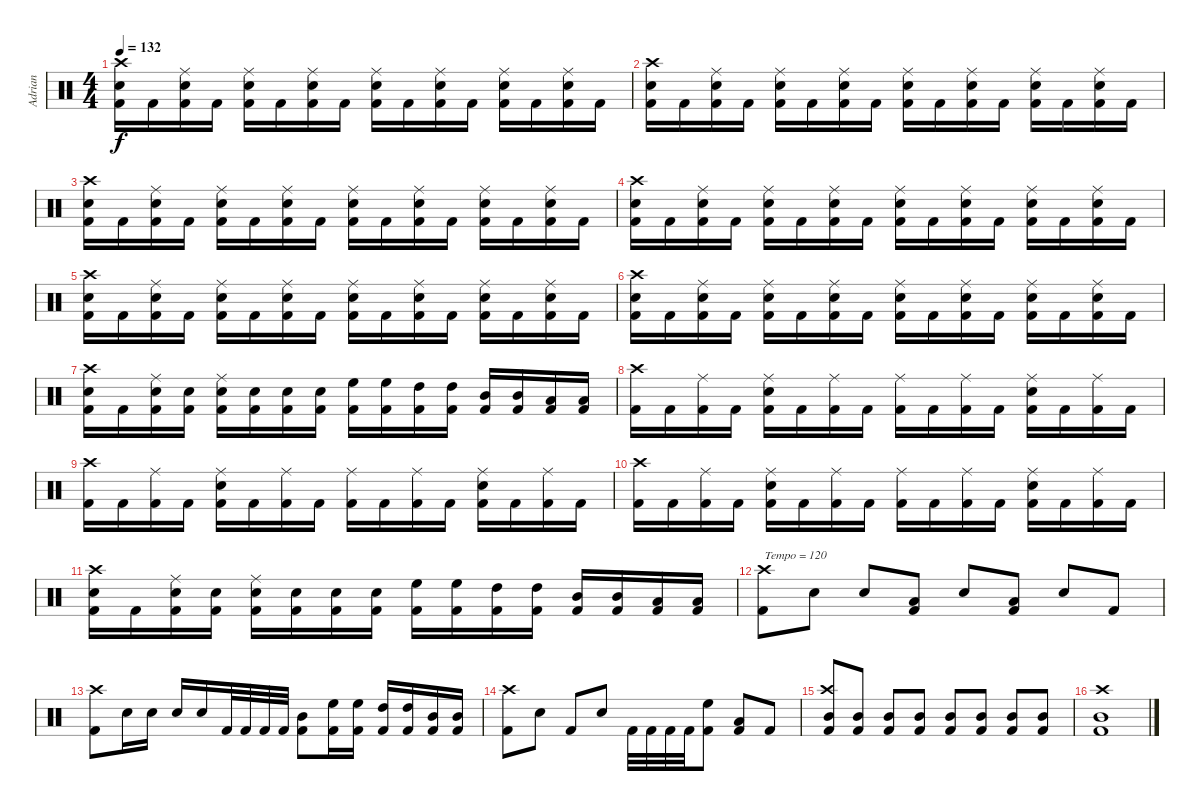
\track ("Adrian" "Adrian") {instrument percussion}
\staff {score}
\articulation defaults
\ts (4 4)
\tempo 132
\clef neutral
\ks c
("Kick (hit) 2" "Snare (hit) 2" "Crash high (hit)").16{dy f} "Kick (hit) 2".16 ("Kick (hit) 2" "Snare (hit) 2" "Ride (middle)").16 "Kick (hit) 2".16 ("Kick (hit) 2" "Snare (hit) 2" "Ride (middle)").16 "Kick (hit) 2".16 ("Kick (hit) 2" "Snare (hit) 2" "Ride (middle)").16 "Kick (hit) 2".16 ("Kick (hit) 2" "Snare (hit) 2" "Ride (middle)").16 "Kick (hit) 2".16 ("Kick (hit) 2" "Snare (hit) 2" "Ride (middle)").16 "Kick (hit) 2".16 ("Kick (hit) 2" "Snare (hit) 2" "Ride (middle)").16 "Kick (hit) 2".16 ("Kick (hit) 2" "Snare (hit) 2" "Ride (middle)").16 "Kick (hit) 2".16 |
("Kick (hit) 2" "Snare (hit) 2" "Crash high (hit)").16 "Kick (hit) 2".16 ("Kick (hit) 2" "Snare (hit) 2" "Ride (middle)").16 "Kick (hit) 2".16 ("Kick (hit) 2" "Snare (hit) 2" "Ride (middle)").16 "Kick (hit) 2".16 ("Kick (hit) 2" "Snare (hit) 2" "Ride (middle)").16 "Kick (hit) 2".16 ("Kick (hit) 2" "Snare (hit) 2" "Ride (middle)").16 "Kick (hit) 2".16 ("Kick (hit) 2" "Snare (hit) 2" "Ride (middle)").16 "Kick (hit) 2".16 ("Kick (hit) 2" "Snare (hit) 2" "Ride (middle)").16 "Kick (hit) 2".16 ("Kick (hit) 2" "Snare (hit) 2" "Ride (middle)").16 "Kick (hit) 2".16 |
("Kick (hit) 2" "Snare (hit) 2" "Crash high (hit)").16 "Kick (hit) 2".16 ("Kick (hit) 2" "Snare (hit) 2" "Ride (middle)").16 "Kick (hit) 2".16 ("Kick (hit) 2" "Snare (hit) 2" "Ride (middle)").16 "Kick (hit) 2".16 ("Kick (hit) 2" "Snare (hit) 2" "Ride (middle)").16 "Kick (hit) 2".16 ("Kick (hit) 2" "Snare (hit) 2" "Ride (middle)").16 "Kick (hit) 2".16 ("Kick (hit) 2" "Snare (hit) 2" "Ride (middle)").16 "Kick (hit) 2".16 ("Kick (hit) 2" "Snare (hit) 2" "Ride (middle)").16 "Kick (hit) 2".16 ("Kick (hit) 2" "Snare (hit) 2" "Ride (middle)").16 "Kick (hit) 2".16 |
("Kick (hit) 2" "Snare (hit) 2" "Crash high (hit)").16 "Kick (hit) 2".16 ("Kick (hit) 2" "Snare (hit) 2" "Ride (middle)").16 "Kick (hit) 2".16 ("Kick (hit) 2" "Snare (hit) 2" "Ride (middle)").16 "Kick (hit) 2".16 ("Kick (hit) 2" "Snare (hit) 2" "Ride (middle)").16 "Kick (hit) 2".16 ("Kick (hit) 2" "Snare (hit) 2" "Ride (middle)").16 "Kick (hit) 2".16 ("Kick (hit) 2" "Snare (hit) 2" "Ride (middle)").16 "Kick (hit) 2".16 ("Kick (hit) 2" "Snare (hit) 2" "Ride (middle)").16 "Kick (hit) 2".16 ("Kick (hit) 2" "Snare (hit) 2" "Ride (middle)").16 "Kick (hit) 2".16 |
("Kick (hit) 2" "Snare (hit) 2" "Crash high (hit)").16 "Kick (hit) 2".16 ("Kick (hit) 2" "Snare (hit) 2" "Ride (middle)").16 "Kick (hit) 2".16 ("Kick (hit) 2" "Snare (hit) 2" "Ride (middle)").16 "Kick (hit) 2".16 ("Kick (hit) 2" "Snare (hit) 2" "Ride (middle)").16 "Kick (hit) 2".16 ("Kick (hit) 2" "Snare (hit) 2" "Ride (middle)").16 "Kick (hit) 2".16 ("Kick (hit) 2" "Snare (hit) 2" "Ride (middle)").16 "Kick (hit) 2".16 ("Kick (hit) 2" "Snare (hit) 2" "Ride (middle)").16 "Kick (hit) 2".16 ("Kick (hit) 2" "Snare (hit) 2" "Ride (middle)").16 "Kick (hit) 2".16 |
("Kick (hit) 2" "Snare (hit) 2" "Crash high (hit)").16 "Kick (hit) 2".16 ("Kick (hit) 2" "Snare (hit) 2" "Ride (middle)").16 "Kick (hit) 2".16 ("Kick (hit) 2" "Snare (hit) 2" "Ride (middle)").16 "Kick (hit) 2".16 ("Kick (hit) 2" "Snare (hit) 2" "Ride (middle)").16 "Kick (hit) 2".16 ("Kick (hit) 2" "Snare (hit) 2" "Ride (middle)").16 "Kick (hit) 2".16 ("Kick (hit) 2" "Snare (hit) 2" "Ride (middle)").16 "Kick (hit) 2".16 ("Kick (hit) 2" "Snare (hit) 2" "Ride (middle)").16 "Kick (hit) 2".16 ("Kick (hit) 2" "Snare (hit) 2" "Ride (middle)").16 "Kick (hit) 2".16 |
("Kick (hit) 2" "Snare (hit) 2" "Crash high (hit)").16 "Kick (hit) 2".16 ("Kick (hit) 2" "Snare (hit) 2" "Ride (middle)").16 ("Kick (hit) 2" "Snare (hit) 2").16 ("Kick (hit) 2" "Snare (hit) 2" "Ride (middle)").16 ("Kick (hit) 2" "Snare (hit) 2").16 ("Kick (hit) 2" "Snare (hit) 2").16 ("Kick (hit) 2" "Snare (hit) 2").16 ("Kick (hit) 2" "High Floor Tom (hit)").16 ("Kick (hit) 2" "High Floor Tom (hit)").16 ("Kick (hit) 2" "High Tom (hit)").16 ("Kick (hit) 2" "High Tom (hit)").16 ("Kick (hit) 2" "Mid Tom (hit)").16 ("Kick (hit) 2" "Mid Tom (hit)").16 ("Kick (hit) 2" "Low Tom (hit)").16 ("Kick (hit) 2" "Low Tom (hit)").16 |
("Kick (hit) 2" "Crash high (hit)").16 "Kick (hit) 2".16 ("Kick (hit) 2" "Ride (middle)").16 "Kick (hit) 2".16 ("Kick (hit) 2" "Snare (hit) 2" "Ride (middle)").16 "Kick (hit) 2".16 ("Kick (hit) 2" "Ride (middle)").16 "Kick (hit) 2".16 ("Kick (hit) 2" "Ride (middle)").16 "Kick (hit) 2".16 ("Kick (hit) 2" "Ride (middle)").16 "Kick (hit) 2".16 ("Kick (hit) 2" "Snare (hit) 2" "Ride (middle)").16 "Kick (hit) 2".16 ("Kick (hit) 2" "Ride (middle)").16 "Kick (hit) 2".16 |
("Kick (hit) 2" "Crash high (hit)").16 "Kick (hit) 2".16 ("Kick (hit) 2" "Ride (middle)").16 "Kick (hit) 2".16 ("Kick (hit) 2" "Snare (hit) 2" "Ride (middle)").16 "Kick (hit) 2".16 ("Kick (hit) 2" "Ride (middle)").16 "Kick (hit) 2".16 ("Kick (hit) 2" "Ride (middle)").16 "Kick (hit) 2".16 ("Kick (hit) 2" "Ride (middle)").16 "Kick (hit) 2".16 ("Kick (hit) 2" "Snare (hit) 2" "Ride (middle)").16 "Kick (hit) 2".16 ("Kick (hit) 2" "Ride (middle)").16 "Kick (hit) 2".16 |
("Kick (hit) 2" "Crash high (hit)").16 "Kick (hit) 2".16 ("Kick (hit) 2" "Ride (middle)").16 "Kick (hit) 2".16 ("Kick (hit) 2" "Snare (hit) 2" "Ride (middle)").16 "Kick (hit) 2".16 ("Kick (hit) 2" "Ride (middle)").16 "Kick (hit) 2".16 ("Kick (hit) 2" "Ride (middle)").16 "Kick (hit) 2".16 ("Kick (hit) 2" "Ride (middle)").16 "Kick (hit) 2".16 ("Kick (hit) 2" "Snare (hit) 2" "Ride (middle)").16 "Kick (hit) 2".16 ("Kick (hit) 2" "Ride (middle)").16 "Kick (hit) 2".16 |
("Kick (hit) 2" "Snare (hit) 2" "Crash high (hit)").16 "Kick (hit) 2".16 ("Kick (hit) 2" "Snare (hit) 2" "Ride (middle)").16 ("Kick (hit) 2" "Snare (hit) 2").16 ("Kick (hit) 2" "Snare (hit) 2" "Ride (middle)").16 ("Kick (hit) 2" "Snare (hit) 2").16 ("Kick (hit) 2" "Snare (hit) 2").16 ("Kick (hit) 2" "Snare (hit) 2").16 ("Kick (hit) 2" "High Floor Tom (hit)").16 ("Kick (hit) 2" "High Floor Tom (hit)").16 ("Kick (hit) 2" "High Tom (hit)").16 ("Kick (hit) 2" "High Tom (hit)").16 ("Kick (hit) 2" "Mid Tom (hit)").16 ("Kick (hit) 2" "Mid Tom (hit)").16 ("Kick (hit) 2" "Low Tom (hit)").16 ("Kick (hit) 2" "Low Tom (hit)").16 |
("Kick (hit) 2" "Crash high (hit)").8{txt "Tempo = 120"} "Snare (hit) 2".8 "Snare (hit) 2".8 ("Kick (hit) 2" "Low Tom (hit)").8 "Snare (hit) 2".8 ("Kick (hit) 2" "Low Tom (hit)").8 "Snare (hit) 2".8 "Kick (hit) 2".8 |
("Kick (hit) 2" "Crash high (hit)").8 "Snare (hit) 2".16 "Snare (hit) 2".16 "Snare (hit) 2".16 "Snare (hit) 2".16 "Kick (hit) 2".32 "Kick (hit) 2".32 "Kick (hit) 2".32 "Kick (hit) 2".32 ("Kick (hit) 2" "Mid Tom (hit)").8 ("Kick (hit) 2" "High Floor Tom (hit)").16 ("Kick (hit) 2" "High Floor Tom (hit)").16 ("Kick (hit) 2" "High Tom (hit)").16 ("Kick (hit) 2" "High Tom (hit)").16 ("Kick (hit) 2" "Mid Tom (hit)").16 ("Kick (hit) 2" "Mid Tom (hit)").16 |
("Kick (hit) 2" "Crash high (hit)").8 "Snare (hit) 2".8 "Kick (hit) 2".8 "Snare (hit) 2".8 "Kick (hit) 2".32 "Kick (hit) 2".32 "Kick (hit) 2".32 "Kick (hit) 2".32 ("Kick (hit) 2" "High Floor Tom (hit)").8 ("Kick (hit) 2" "Low Tom (hit)").8 "Kick (hit) 2".8 |
("Kick (hit) 2" "Mid Tom (hit)" "Crash high (hit)").8 ("Kick (hit) 2" "Mid Tom (hit)").8 ("Kick (hit) 2" "Mid Tom (hit)").8 ("Kick (hit) 2" "Mid Tom (hit)").8 ("Kick (hit) 2" "Mid Tom (hit)").8 ("Kick (hit) 2" "Mid Tom (hit)").8 ("Kick (hit) 2" "Mid Tom (hit)").8 ("Kick (hit) 2" "Mid Tom (hit)").8 |
("Kick (hit) 2" "Mid Tom (hit)" "Crash high (hit)").1
